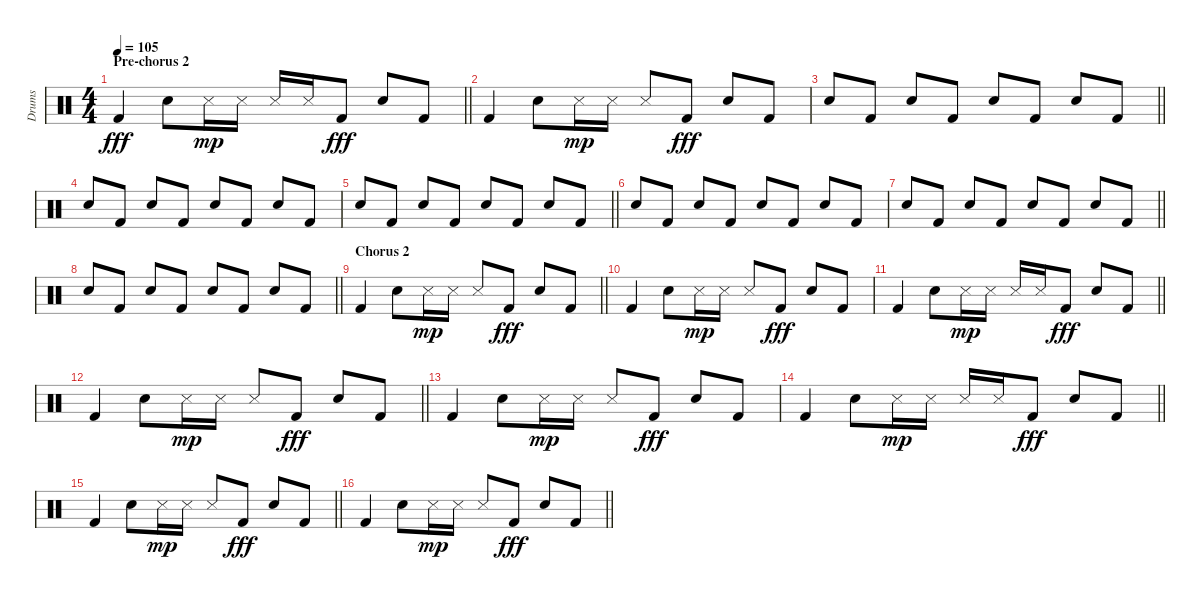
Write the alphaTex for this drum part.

\track ("Drums" "Drums") {instrument percussion}
\staff {score}
\articulation defaults
\ts (4 4)
\section ("" "Pre-chorus 2")
\tempo 105
\clef neutral
\barLineRight lightlight
\ks aminor "Kick (hit) 2".4{dy fff} "Electric Snare (hit)".8 "Snare (side stick) 3".16{dy mp} "Metronome (hit)".16 "Snare (side stick) 3".16 "Metronome (hit)".16 "Kick (hit) 2".8{dy fff} "Electric Snare (hit)".8 "Kick (hit) 2".8
|
"Kick (hit) 2".4 "Electric Snare (hit)".8 "Snare (side stick) 3".16{dy mp} "Metronome (hit)".16 "Snare (side stick) 3".8 "Kick (hit) 2".8{dy fff} "Electric Snare (hit)".8 "Kick (hit) 2".8 |
\barLineRight lightlight "Electric Snare (hit)".8 "Kick (hit) 2".8 "Electric Snare (hit)".8 "Kick (hit) 2".8 "Electric Snare (hit)".8 "Kick (hit) 2".8 "Electric Snare (hit)".8 "Kick (hit) 2".8
|
"Electric Snare (hit)".8 "Kick (hit) 2".8 "Electric Snare (hit)".8 "Kick (hit) 2".8 "Electric Snare (hit)".8 "Kick (hit) 2".8 "Electric Snare (hit)".8 "Kick (hit) 2".8 |
\barLineRight lightlight "Electric Snare (hit)".8 "Kick (hit) 2".8 "Electric Snare (hit)".8 "Kick (hit) 2".8 "Electric Snare (hit)".8 "Kick (hit) 2".8 "Electric Snare (hit)".8 "Kick (hit) 2".8
|
"Electric Snare (hit)".8 "Kick (hit) 2".8 "Electric Snare (hit)".8 "Kick (hit) 2".8 "Electric Snare (hit)".8 "Kick (hit) 2".8 "Electric Snare (hit)".8 "Kick (hit) 2".8 |
\barLineRight lightlight "Electric Snare (hit)".8 "Kick (hit) 2".8 "Electric Snare (hit)".8 "Kick (hit) 2".8 "Electric Snare (hit)".8 "Kick (hit) 2".8 "Electric Snare (hit)".8 "Kick (hit) 2".8
|
\barLineRight lightlight "Electric Snare (hit)".8 "Kick (hit) 2".8 "Electric Snare (hit)".8 "Kick (hit) 2".8 "Electric Snare (hit)".8 "Kick (hit) 2".8 "Electric Snare (hit)".8 "Kick (hit) 2".8
|
\section ("" "Chorus 2")
\barLineRight lightlight "Kick (hit) 2".4 "Electric Snare (hit)".8 "Snare (side stick) 3".16{dy mp} "Metronome (hit)".16 "Snare (side stick) 3".8 "Kick (hit) 2".8{dy fff} "Electric Snare (hit)".8 "Kick (hit) 2".8
|
"Kick (hit) 2".4 "Electric Snare (hit)".8 "Snare (side stick) 3".16{dy mp} "Metronome (hit)".16 "Snare (side stick) 3".8 "Kick (hit) 2".8{dy fff} "Electric Snare (hit)".8 "Kick (hit) 2".8 |
\barLineRight lightlight "Kick (hit) 2".4 "Electric Snare (hit)".8 "Snare (side stick) 3".16{dy mp} "Metronome (hit)".16 "Snare (side stick) 3".16 "Metronome (hit)".16 "Kick (hit) 2".8{dy fff} "Electric Snare (hit)".8 "Kick (hit) 2".8
|
\barLineRight lightlight "Kick (hit) 2".4 "Electric Snare (hit)".8 "Snare (side stick) 3".16{dy mp} "Metronome (hit)".16 "Snare (side stick) 3".8 "Kick (hit) 2".8{dy fff} "Electric Snare (hit)".8 "Kick (hit) 2".8
|
\section ("" "")
"Kick (hit) 2".4 "Electric Snare (hit)".8 "Snare (side stick) 3".16{dy mp} "Metronome (hit)".16 "Snare (side stick) 3".8 "Kick (hit) 2".8{dy fff} "Electric Snare (hit)".8 "Kick (hit) 2".8 |
\barLineRight lightlight "Kick (hit) 2".4 "Electric Snare (hit)".8 "Snare (side stick) 3".16{dy mp} "Metronome (hit)".16 "Snare (side stick) 3".16 "Metronome (hit)".16 "Kick (hit) 2".8{dy fff} "Electric Snare (hit)".8 "Kick (hit) 2".8
|
\barLineRight lightlight "Kick (hit) 2".4 "Electric Snare (hit)".8 "Snare (side stick) 3".16{dy mp} "Metronome (hit)".16 "Snare (side stick) 3".8 "Kick (hit) 2".8{dy fff} "Electric Snare (hit)".8 "Kick (hit) 2".8
|
\barLineRight lightlight "Kick (hit) 2".4 "Electric Snare (hit)".8 "Snare (side stick) 3".16{dy mp} "Metronome (hit)".16 "Snare (side stick) 3".8 "Kick (hit) 2".8{dy fff} "Electric Snare (hit)".8 "Kick (hit) 2".8
